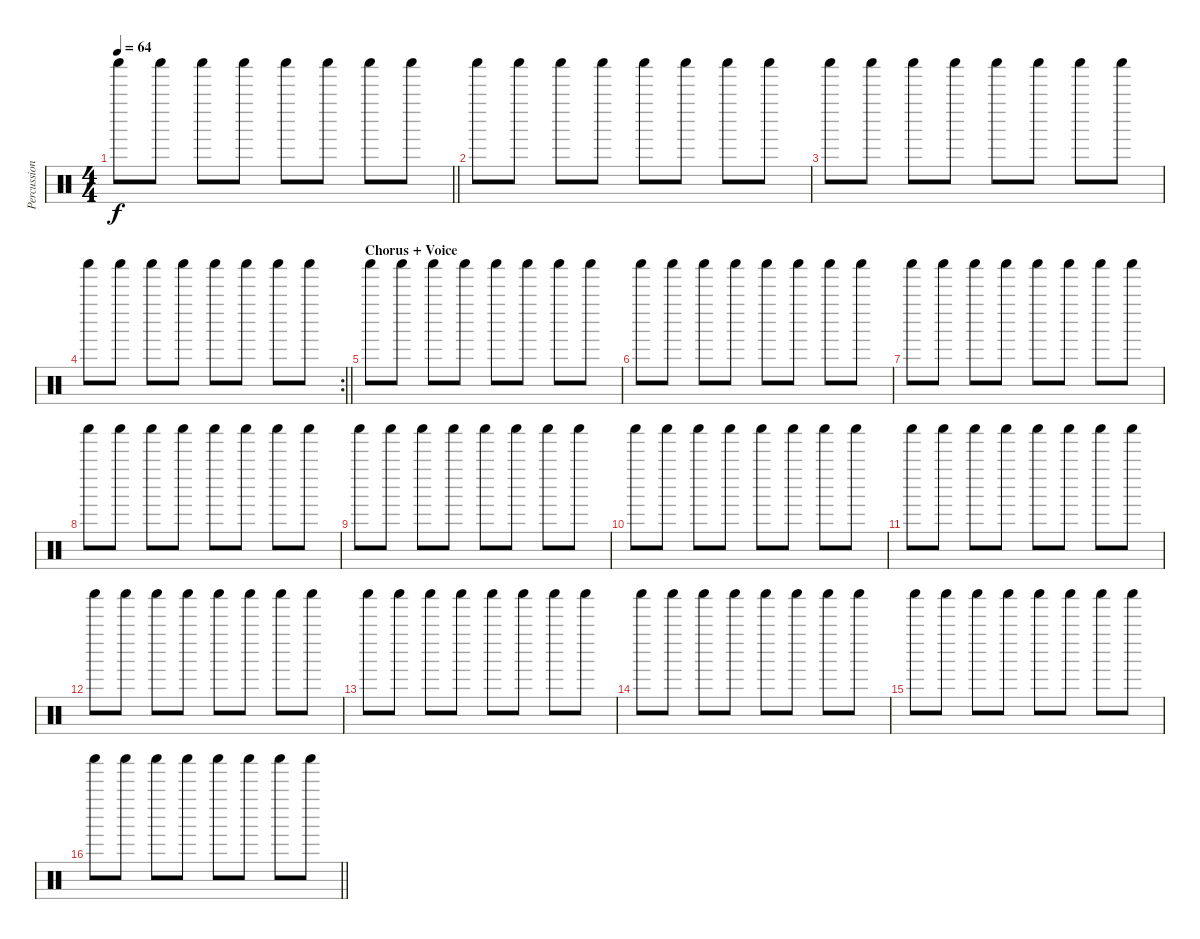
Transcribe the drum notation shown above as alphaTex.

\track ("Percussions" "Percussion") {instrument percussion}
\staff {score}
\articulation defaults
\ts (4 4)
\tempo 64
\clef neutral
\barLineRight lightlight
\ks c "Shaker (hit)".8{dy f} "Shaker (hit)".8 "Shaker (hit)".8 "Shaker (hit)".8 "Shaker (hit)".8 "Shaker (hit)".8 "Shaker (hit)".8 "Shaker (hit)".8
|
"Shaker (hit)".8 "Shaker (hit)".8 "Shaker (hit)".8 "Shaker (hit)".8 "Shaker (hit)".8 "Shaker (hit)".8 "Shaker (hit)".8 "Shaker (hit)".8 |
"Shaker (hit)".8 "Shaker (hit)".8 "Shaker (hit)".8 "Shaker (hit)".8 "Shaker (hit)".8 "Shaker (hit)".8 "Shaker (hit)".8 "Shaker (hit)".8 |
\rc 2
\barLineRight lightlight "Shaker (hit)".8 "Shaker (hit)".8 "Shaker (hit)".8 "Shaker (hit)".8 "Shaker (hit)".8 "Shaker (hit)".8 "Shaker (hit)".8 "Shaker (hit)".8
|
\section ("" "Chorus + Voice")
"Shaker (hit)".8 "Shaker (hit)".8 "Shaker (hit)".8 "Shaker (hit)".8 "Shaker (hit)".8 "Shaker (hit)".8 "Shaker (hit)".8 "Shaker (hit)".8 |
"Shaker (hit)".8 "Shaker (hit)".8 "Shaker (hit)".8 "Shaker (hit)".8 "Shaker (hit)".8 "Shaker (hit)".8 "Shaker (hit)".8 "Shaker (hit)".8 |
"Shaker (hit)".8 "Shaker (hit)".8 "Shaker (hit)".8 "Shaker (hit)".8 "Shaker (hit)".8 "Shaker (hit)".8 "Shaker (hit)".8 "Shaker (hit)".8 |
"Shaker (hit)".8 "Shaker (hit)".8 "Shaker (hit)".8 "Shaker (hit)".8 "Shaker (hit)".8 "Shaker (hit)".8 "Shaker (hit)".8 "Shaker (hit)".8 |
"Shaker (hit)".8 "Shaker (hit)".8 "Shaker (hit)".8 "Shaker (hit)".8 "Shaker (hit)".8 "Shaker (hit)".8 "Shaker (hit)".8 "Shaker (hit)".8 |
"Shaker (hit)".8 "Shaker (hit)".8 "Shaker (hit)".8 "Shaker (hit)".8 "Shaker (hit)".8 "Shaker (hit)".8 "Shaker (hit)".8 "Shaker (hit)".8 |
"Shaker (hit)".8 "Shaker (hit)".8 "Shaker (hit)".8 "Shaker (hit)".8 "Shaker (hit)".8 "Shaker (hit)".8 "Shaker (hit)".8 "Shaker (hit)".8 |
"Shaker (hit)".8 "Shaker (hit)".8 "Shaker (hit)".8 "Shaker (hit)".8 "Shaker (hit)".8 "Shaker (hit)".8 "Shaker (hit)".8 "Shaker (hit)".8 |
"Shaker (hit)".8 "Shaker (hit)".8 "Shaker (hit)".8 "Shaker (hit)".8 "Shaker (hit)".8 "Shaker (hit)".8 "Shaker (hit)".8 "Shaker (hit)".8 |
"Shaker (hit)".8 "Shaker (hit)".8 "Shaker (hit)".8 "Shaker (hit)".8 "Shaker (hit)".8 "Shaker (hit)".8 "Shaker (hit)".8 "Shaker (hit)".8 |
"Shaker (hit)".8 "Shaker (hit)".8 "Shaker (hit)".8 "Shaker (hit)".8 "Shaker (hit)".8 "Shaker (hit)".8 "Shaker (hit)".8 "Shaker (hit)".8 |
\barLineRight lightlight "Shaker (hit)".8 "Shaker (hit)".8 "Shaker (hit)".8 "Shaker (hit)".8 "Shaker (hit)".8 "Shaker (hit)".8 "Shaker (hit)".8 "Shaker (hit)".8
